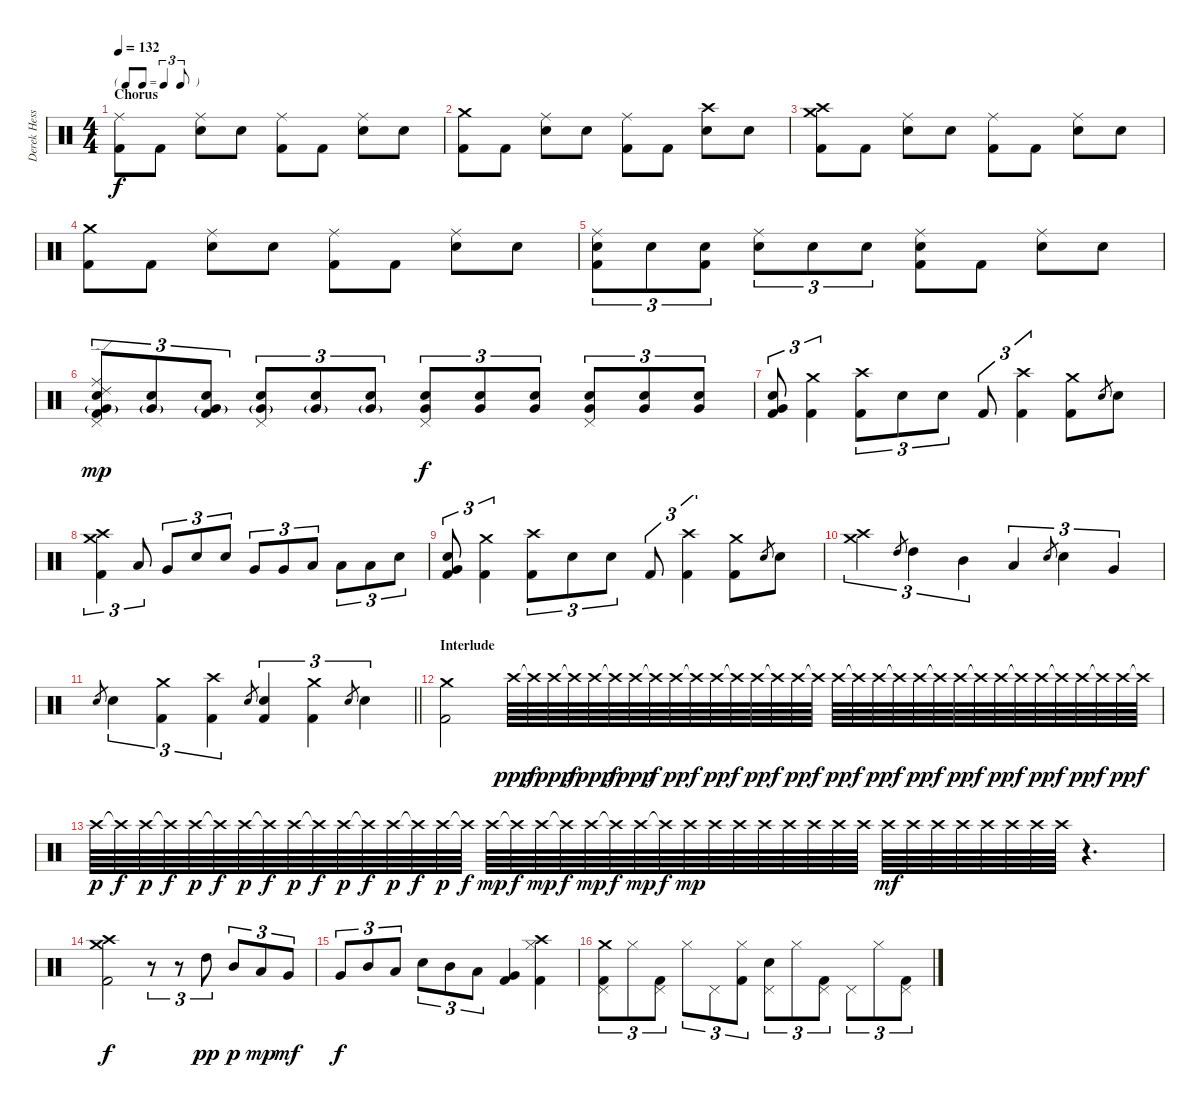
\track ("Derek Hess (Drums and Percussion)" "Derek Hess") {instrument percussion}
\staff {score}
\articulation defaults
\ts (4 4)
\tf triplet8th
\section ("" "Chorus")
\tempo 132
\clef neutral
\ks c
("Ride (middle)" "Kick (hit) 2").8{dy f} "Kick (hit) 2".8 ("Ride (middle)" "Snare (hit) 2").8 "Snare (hit) 2".8 ("Ride (middle)" "Kick (hit) 2").8 "Kick (hit) 2".8 ("Ride (middle)" "Snare (hit) 2").8 "Snare (hit) 2".8 |
("Crash medium (hit)" "Kick (hit) 2").8 "Kick (hit) 2".8 ("Ride (middle)" "Snare (hit) 2").8 "Snare (hit) 2".8 ("Ride (middle)" "Kick (hit) 2").8 "Kick (hit) 2".8 ("Crash high (hit)" "Snare (hit) 2").8 "Snare (hit) 2".8 |
("Crash medium (hit)" "Crash high (hit)" "Kick (hit) 2").8 "Kick (hit) 2".8 ("Ride (middle)" "Snare (hit) 2").8 "Snare (hit) 2".8 ("Ride (middle)" "Kick (hit) 2").8 "Kick (hit) 2".8 ("Ride (middle)" "Snare (hit) 2").8 "Snare (hit) 2".8 |
("Crash medium (hit)" "Kick (hit) 2").8 "Kick (hit) 2".8 ("Ride (middle)" "Snare (hit) 2").8 "Snare (hit) 2".8 ("Ride (middle)" "Kick (hit) 2").8 "Kick (hit) 2".8 ("Ride (middle)" "Snare (hit) 2").8 "Snare (hit) 2".8 |
("Ride (middle)" "Snare (hit) 2" "Kick (hit) 2").8{tu (3 2)} "Snare (hit) 2".8{tu (3 2)} ("Snare (hit) 2" "Kick (hit) 2").8{tu (3 2)} ("Ride (middle)" "Snare (hit) 2").8{tu (3 2)} "Snare (hit) 2".8{tu (3 2)} "Snare (hit) 2".8{tu (3 2)} ("Ride (middle)" "Snare (hit) 2" "Kick (hit) 2").8 "Kick (hit) 2".8 ("Ride (middle)" "Snare (hit) 2").8 "Snare (hit) 2".8 |
("Ride (middle)" "Ride (edge) 2" "Very Low Tom (hit)"{g} "Snare (hit) 2" "Pedal Hi-Hat (hit)" "Kick (hit) 2").8{tu (3 2) dy mp} ("Very Low Tom (hit)"{g} "Snare (hit) 2").8{tu (3 2)} ("Very Low Tom (hit)"{g} "Snare (hit) 2" "Kick (hit) 2").8{tu (3 2)} ("Very Low Tom (hit)"{g} "Snare (hit) 2" "Pedal Hi-Hat (hit)").8{tu (3 2)} ("Very Low Tom (hit)"{g} "Snare (hit) 2").8{tu (3 2)} ("Very Low Tom (hit)"{g} "Snare (hit) 2").8{tu (3 2)} ("Very Low Tom (hit)" "Snare (hit) 2" "Pedal Hi-Hat (hit)").8{tu (3 2) dy f} ("Very Low Tom (hit)" "Snare (hit) 2").8{tu (3 2)} ("Very Low Tom (hit)" "Snare (hit) 2").8{tu (3 2)} ("Very Low Tom (hit)" "Snare (hit) 2" "Pedal Hi-Hat (hit)").8{tu (3 2)} ("Very Low Tom (hit)" "Snare (hit) 2").8{tu (3 2)} ("Very Low Tom (hit)" "Snare (hit) 2").8{tu (3 2)} |
("Very Low Tom (hit)" "Snare (hit) 2" "Kick (hit) 2").8{tu (3 2)} ("Crash medium (hit)" "Kick (hit) 2").4{tu (3 2)} ("Crash high (hit)" "Kick (hit) 2").8{tu (3 2)} "Snare (hit) 2".8{tu (3 2)} "Snare (hit) 2".8{tu (3 2)} "Kick (hit) 2".8{tu (3 2)} ("Crash high (hit)" "Kick (hit) 2").4{tu (3 2)} ("Crash medium (hit)" "Kick (hit) 2").8 "Snare (hit) 2".8{gr} "Snare (hit) 2".8 |
("Crash medium (hit)" "Crash high (hit)" "Kick (hit) 2").4{tu (3 2)} "Low Tom (hit)".8{tu (3 2)} "Very Low Tom (hit)".8{tu (3 2)} "Snare (hit) 2".8{tu (3 2)} "Snare (hit) 2".8{tu (3 2)} "Very Low Tom (hit)".8{tu (3 2)} "Very Low Tom (hit)".8{tu (3 2)} "Low Floor Tom (hit)".8{tu (3 2)} "Low Floor Tom (hit)".8{tu (3 2)} "Low Floor Tom (hit)".8{tu (3 2)} "Snare (hit) 2".8{tu (3 2)} |
("Very Low Tom (hit)" "Snare (hit) 2" "Kick (hit) 2").8{tu (3 2)} ("Crash medium (hit)" "Kick (hit) 2").4{tu (3 2)} ("Crash high (hit)" "Kick (hit) 2").8{tu (3 2)} "Snare (hit) 2".8{tu (3 2)} "Snare (hit) 2".8{tu (3 2)} "Kick (hit) 2".8{tu (3 2)} ("Crash high (hit)" "Kick (hit) 2").4{tu (3 2)} ("Crash medium (hit)" "Kick (hit) 2").8 "Snare (hit) 2".8{gr} "Snare (hit) 2".8 |
("Crash medium (hit)" "Crash high (hit)").4{tu (3 2)} "High Tom (hit)".8{gr} "High Tom (hit)".4{tu (3 2)} "Mid Tom (hit)".4{tu (3 2)} "Low Tom (hit)".4{tu (3 2)} "Snare (hit) 2".8{gr} "Snare (hit) 2".4{tu (3 2)} "Very Low Tom (hit)".4{tu (3 2)} |
\barLineRight lightlight "Snare (hit) 2".8{gr} "Snare (hit) 2".4{tu (3 2)}
("Crash medium (hit)" "Kick (hit) 2").4{tu (3 2)} ("Crash high (hit)" "Kick (hit) 2").4{tu (3 2)} "Snare (hit) 2".8{gr} ("Snare (hit) 2" "Kick (hit) 2").4{tu (3 2)} ("Crash medium (hit)" "Kick (hit) 2").4{tu (3 2)} "Snare (hit) 2".8{gr} "Snare (hit) 2".4{tu (3 2)} |
\section ("" "Interlude")
("Crash medium (hit)" "Kick (hit) 2").2 "Crash high (hit)".64{dy ppp} "Crash high (hit)"{t}.64{dy f} "Crash high (hit)".64{dy ppp} "Crash high (hit)"{t}.64{dy f} "Crash high (hit)".64{dy ppp} "Crash high (hit)"{t}.64{dy f} "Crash high (hit)".64{dy ppp} "Crash high (hit)"{t}.64{dy f} "Crash high (hit)".64{dy pp} "Crash high (hit)"{t}.64{dy f} "Crash high (hit)".64{dy pp} "Crash high (hit)"{t}.64{dy f} "Crash high (hit)".64{dy pp} "Crash high (hit)"{t}.64{dy f} "Crash high (hit)".64{dy pp} "Crash high (hit)"{t}.64{dy f} "Crash high (hit)".64{dy pp} "Crash high (hit)"{t}.64{dy f} "Crash high (hit)".64{dy pp} "Crash high (hit)"{t}.64{dy f} "Crash high (hit)".64{dy pp} "Crash high (hit)"{t}.64{dy f} "Crash high (hit)".64{dy pp} "Crash high (hit)"{t}.64{dy f} "Crash high (hit)".64{dy pp} "Crash high (hit)"{t}.64{dy f} "Crash high (hit)".64{dy pp} "Crash high (hit)"{t}.64{dy f} "Crash high (hit)".64{dy pp} "Crash high (hit)"{t}.64{dy f} "Crash high (hit)".64{dy pp} "Crash high (hit)"{t}.64{dy f} |
"Crash high (hit)".64{dy p} "Crash high (hit)"{t}.64{dy f} "Crash high (hit)".64{dy p} "Crash high (hit)"{t}.64{dy f} "Crash high (hit)".64{dy p} "Crash high (hit)"{t}.64{dy f} "Crash high (hit)".64{dy p} "Crash high (hit)"{t}.64{dy f} "Crash high (hit)".64{dy p} "Crash high (hit)"{t}.64{dy f} "Crash high (hit)".64{dy p} "Crash high (hit)"{t}.64{dy f} "Crash high (hit)".64{dy p} "Crash high (hit)"{t}.64{dy f} "Crash high (hit)".64{dy p} "Crash high (hit)"{t}.64{dy f} "Crash high (hit)".64{dy mp} "Crash high (hit)"{t}.64{dy f} "Crash high (hit)".64{dy mp} "Crash high (hit)"{t}.64{dy f} "Crash high (hit)".64{dy mp} "Crash high (hit)"{t}.64{dy f} "Crash high (hit)".64{dy mp} "Crash high (hit)"{t}.64{dy f} "Crash high (hit)".64{dy mp} "Crash high (hit)".64 "Crash high (hit)".64 "Crash high (hit)".64 "Crash high (hit)".64 "Crash high (hit)".64 "Crash high (hit)".64 "Crash high (hit)".64 "Crash high (hit)".64{dy mf} "Crash high (hit)".64 "Crash high (hit)".64 "Crash high (hit)".64 "Crash high (hit)".64 "Crash high (hit)".64 "Crash high (hit)".64 "Crash high (hit)".64 r.4{d} |
("Crash medium (hit)" "Crash high (hit)" "Kick (hit) 2").2{dy f} r.8{tu (3 2)} r.8{tu (3 2)} "High Tom (hit)".8{tu (3 2) dy pp} "Mid Tom (hit)".8{tu (3 2) dy p} "Low Floor Tom (hit)".8{tu (3 2) dy mp} "Very Low Tom (hit)".8{tu (3 2) dy mf} |
"Very Low Tom (hit)".8{tu (3 2) dy f} "Mid Tom (hit)".8{tu (3 2)} "Low Tom (hit)".8{tu (3 2)} "Snare (hit) 2".8{tu (3 2)} "Mid Tom (hit)".8{tu (3 2)} "Low Tom (hit)".8{tu (3 2)} ("Very Low Tom (hit)" "Kick (hit) 2").4 ("Crash high (hit)" "Hi-Hat (closed)" "Kick (hit) 2").4 |
("Crash medium (hit)" "Pedal Hi-Hat (hit)" "Kick (hit) 2").8{tu (3 2)} "Hi-Hat (closed)".8{tu (3 2)} ("Pedal Hi-Hat (hit)" "Kick (hit) 2").8{tu (3 2)} "Hi-Hat (closed)".8{tu (3 2)} "Pedal Hi-Hat (hit)".8{tu (3 2)} ("Hi-Hat (closed)" "Kick (hit) 2").8{tu (3 2)} ("Snare (hit) 2" "Pedal Hi-Hat (hit)").8{tu (3 2)} "Hi-Hat (closed)".8{tu (3 2)} ("Pedal Hi-Hat (hit)" "Kick (hit) 2").8{tu (3 2)} "Pedal Hi-Hat (hit)".8{tu (3 2)} "Hi-Hat (closed)".8{tu (3 2)} ("Pedal Hi-Hat (hit)" "Kick (hit) 2").8{tu (3 2)}
